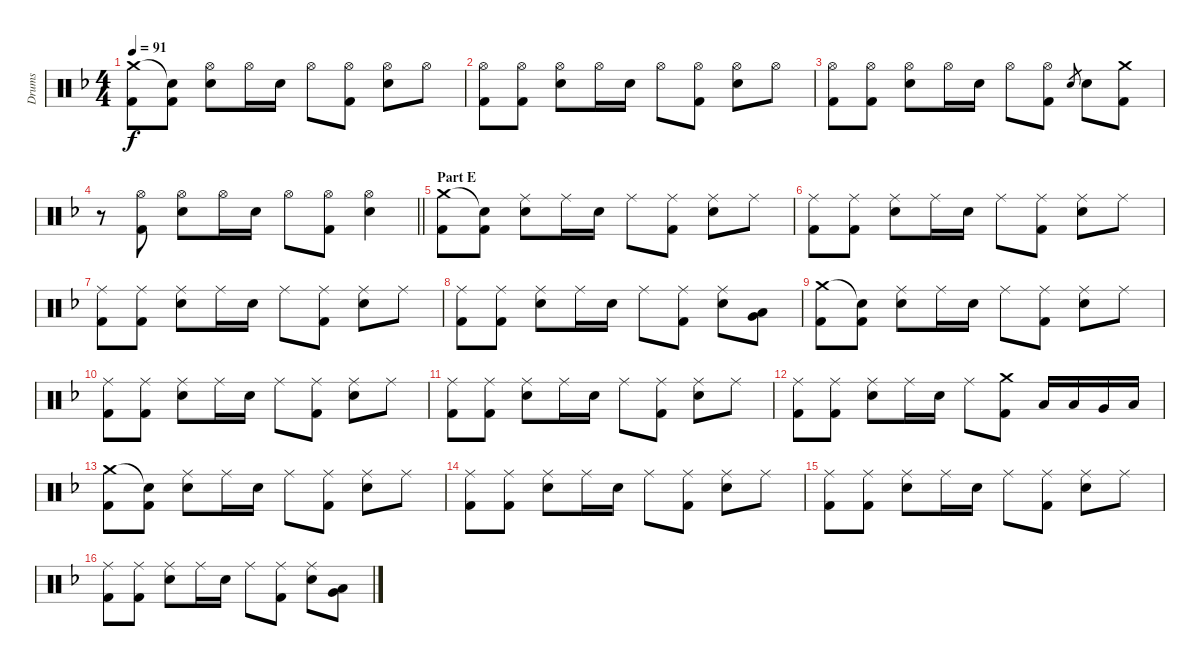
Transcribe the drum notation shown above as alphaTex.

\track ("Drums" "Drums") {instrument percussion}
\staff {score}
\articulation defaults
\ts (4 4)
\tempo 91
\clef neutral
\ks f
("Crash medium (hit)" "Kick (hit) 2").8{dy f} ("Snare (hit)"{t} "Kick (hit) 2").8 ("Hi-Hat (open)" "Electric Snare (hit)").8 "Hi-Hat (open)".16 "Electric Snare (hit)".16 "Hi-Hat (open)".8 ("Hi-Hat (open)" "Kick (hit) 2").8 ("Hi-Hat (open)" "Electric Snare (hit)").8 "Hi-Hat (open)".8 |
("Hi-Hat (open)" "Kick (hit) 2").8 ("Hi-Hat (open)" "Kick (hit) 2").8 ("Hi-Hat (open)" "Electric Snare (hit)").8 "Hi-Hat (open)".16 "Electric Snare (hit)".16 "Hi-Hat (open)".8 ("Hi-Hat (open)" "Kick (hit) 2").8 ("Hi-Hat (open)" "Electric Snare (hit)").8 "Hi-Hat (open)".8 |
("Hi-Hat (open)" "Kick (hit) 2").8 ("Hi-Hat (open)" "Kick (hit) 2").8 ("Hi-Hat (open)" "Electric Snare (hit)").8 "Hi-Hat (open)".16 "Electric Snare (hit)".16 "Hi-Hat (open)".8 ("Hi-Hat (open)" "Kick (hit) 2").8 "Electric Snare (hit)".8{gr} "Electric Snare (hit)".8 ("Crash medium (hit)" "Kick (hit) 2").8 |
\barLineRight lightlight
r.8 ("Hi-Hat (open)" "Kick (hit) 2").8 ("Hi-Hat (open)" "Electric Snare (hit)").8 "Hi-Hat (open)".16 "Electric Snare (hit)".16 "Hi-Hat (open)".8 ("Hi-Hat (open)" "Kick (hit) 2").8 ("Hi-Hat (open)" "Electric Snare (hit)").4 |
\section ("" "Part E")
("Crash medium (hit)" "Kick (hit) 2").8 ("Snare (hit)"{t} "Kick (hit) 2").8 ("Ride (middle)" "Electric Snare (hit)").8 "Ride (middle)".16 "Electric Snare (hit)".16 "Ride (middle)".8 ("Ride (middle)" "Kick (hit) 2").8 ("Ride (middle)" "Electric Snare (hit)").8 "Ride (middle)".8 |
("Ride (middle)" "Kick (hit) 2").8 ("Ride (middle)" "Kick (hit) 2").8 ("Ride (middle)" "Electric Snare (hit)").8 "Ride (middle)".16 "Electric Snare (hit)".16 "Ride (middle)".8 ("Ride (middle)" "Kick (hit) 2").8 ("Ride (middle)" "Electric Snare (hit)").8 "Ride (middle)".8 |
("Ride (middle)" "Kick (hit) 2").8 ("Ride (middle)" "Kick (hit) 2").8 ("Ride (middle)" "Electric Snare (hit)").8 "Ride (middle)".16 "Electric Snare (hit)".16 "Ride (middle)".8 ("Ride (middle)" "Kick (hit) 2").8 ("Ride (middle)" "Electric Snare (hit)").8 "Ride (middle)".8 |
("Ride (middle)" "Kick (hit) 2").8 ("Ride (middle)" "Kick (hit) 2").8 ("Ride (middle)" "Electric Snare (hit)").8 "Ride (middle)".16 "Electric Snare (hit)".16 "Ride (middle)".8 ("Ride (middle)" "Kick (hit) 2").8 ("Ride (middle)" "Electric Snare (hit)").8 ("Very Low Tom (hit)" "Low Floor Tom (hit)").8 |
("Crash medium (hit)" "Kick (hit) 2").8 ("Snare (hit)"{t} "Kick (hit) 2").8 ("Ride (middle)" "Electric Snare (hit)").8 "Ride (middle)".16 "Electric Snare (hit)".16 "Ride (middle)".8 ("Ride (middle)" "Kick (hit) 2").8 ("Ride (middle)" "Electric Snare (hit)").8 "Ride (middle)".8 |
("Ride (middle)" "Kick (hit) 2").8 ("Ride (middle)" "Kick (hit) 2").8 ("Ride (middle)" "Electric Snare (hit)").8 "Ride (middle)".16 "Electric Snare (hit)".16 "Ride (middle)".8 ("Ride (middle)" "Kick (hit) 2").8 ("Ride (middle)" "Electric Snare (hit)").8 "Ride (middle)".8 |
("Ride (middle)" "Kick (hit) 2").8 ("Ride (middle)" "Kick (hit) 2").8 ("Ride (middle)" "Electric Snare (hit)").8 "Ride (middle)".16 "Electric Snare (hit)".16 "Ride (middle)".8 ("Ride (middle)" "Kick (hit) 2").8 ("Ride (middle)" "Electric Snare (hit)").8 "Ride (middle)".8 |
("Ride (middle)" "Kick (hit) 2").8 ("Ride (middle)" "Kick (hit) 2").8 ("Ride (middle)" "Electric Snare (hit)").8 "Ride (middle)".16 "Electric Snare (hit)".16 "Ride (middle)".8 ("Crash medium (hit)" "Kick (hit) 2").8 "Low Tom (hit)".16 "Low Tom (hit)".16 "Very Low Tom (hit)".16 "Low Floor Tom (hit)".16 |
("Crash medium (hit)" "Kick (hit) 2").8 ("Snare (hit)"{t} "Kick (hit) 2").8 ("Ride (middle)" "Electric Snare (hit)").8 "Ride (middle)".16 "Electric Snare (hit)".16 "Ride (middle)".8 ("Ride (middle)" "Kick (hit) 2").8 ("Ride (middle)" "Electric Snare (hit)").8 "Ride (middle)".8 |
("Ride (middle)" "Kick (hit) 2").8 ("Ride (middle)" "Kick (hit) 2").8 ("Ride (middle)" "Electric Snare (hit)").8 "Ride (middle)".16 "Electric Snare (hit)".16 "Ride (middle)".8 ("Ride (middle)" "Kick (hit) 2").8 ("Ride (middle)" "Electric Snare (hit)").8 "Ride (middle)".8 |
("Ride (middle)" "Kick (hit) 2").8 ("Ride (middle)" "Kick (hit) 2").8 ("Ride (middle)" "Electric Snare (hit)").8 "Ride (middle)".16 "Electric Snare (hit)".16 "Ride (middle)".8 ("Ride (middle)" "Kick (hit) 2").8 ("Ride (middle)" "Electric Snare (hit)").8 "Ride (middle)".8 |
("Ride (middle)" "Kick (hit) 2").8 ("Ride (middle)" "Kick (hit) 2").8 ("Ride (middle)" "Electric Snare (hit)").8 "Ride (middle)".16 "Electric Snare (hit)".16 "Ride (middle)".8 ("Ride (middle)" "Kick (hit) 2").8 ("Ride (middle)" "Electric Snare (hit)").8 ("Very Low Tom (hit)" "Low Floor Tom (hit)").8
